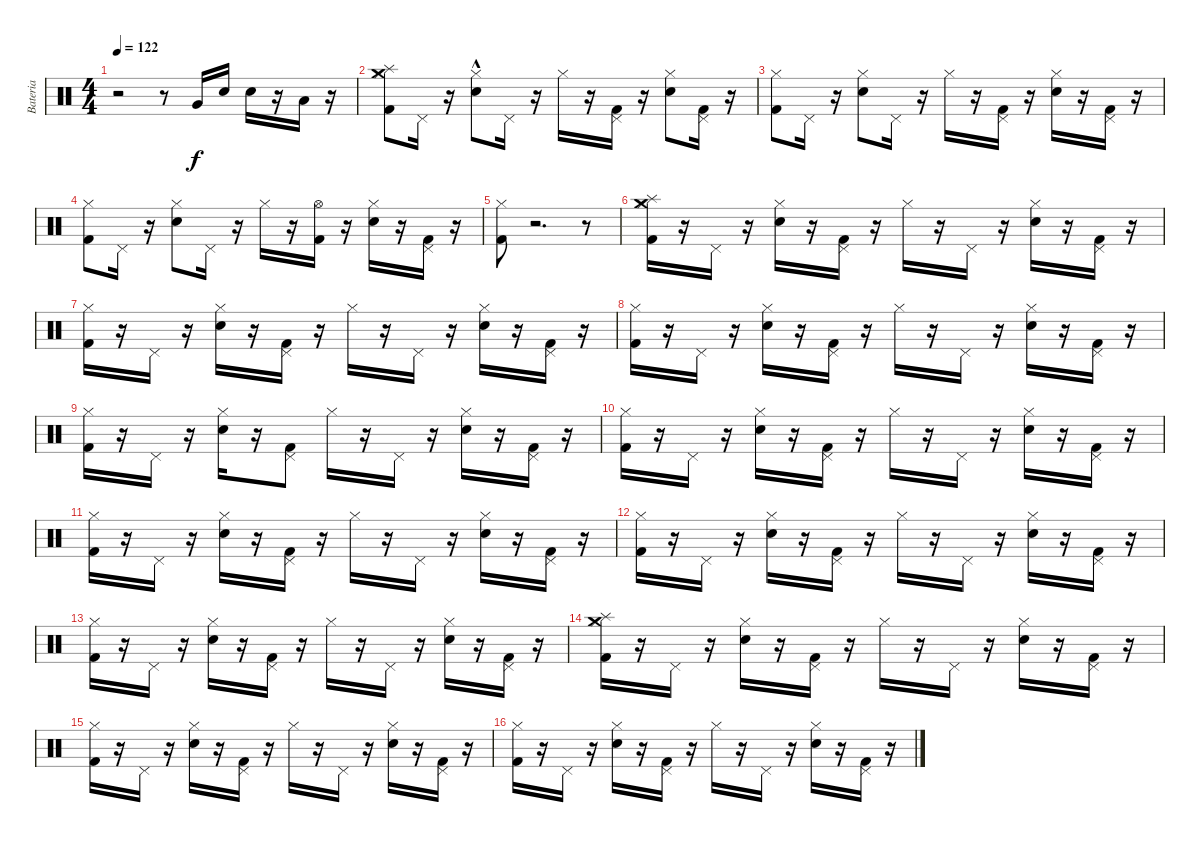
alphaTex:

\track ("Bateria" "Bateria") {instrument percussion}
\staff {score}
\articulation defaults
\ts (4 4)
\tempo 122
\clef neutral
\ks c
r.2{dy f} r.8 "Very Low Tom (hit)".16 "Snare (hit) 2".16 "Snare (hit) 2".16 r.16 "Low Floor Tom (hit)".16 r.16 |
("Kick (hit) 2" "Splash (hit)" "Crash medium (hit)" "Hi-Hat (closed)").8 "Pedal Hi-Hat (hit)".16 r.16 ("Snare (hit) 2"{hac} "Hi-Hat (closed)").8 "Pedal Hi-Hat (hit)".16 r.16 "Hi-Hat (closed)".16 r.16 ("Pedal Hi-Hat (hit)" "Kick (hit) 2").16 r.16 ("Hi-Hat (closed)" "Snare (hit) 2").8 ("Kick (hit) 2" "Pedal Hi-Hat (hit)").16 r.16 |
("Kick (hit) 2" "Hi-Hat (closed)").8 "Pedal Hi-Hat (hit)".16 r.16 ("Snare (hit) 2" "Hi-Hat (closed)").8 "Pedal Hi-Hat (hit)".16 r.16 "Hi-Hat (closed)".16 r.16 ("Kick (hit) 2" "Pedal Hi-Hat (hit)").16 r.16 ("Hi-Hat (closed)" "Snare (hit) 2").16 r.16 ("Pedal Hi-Hat (hit)" "Kick (hit) 2").16 r.16 |
("Hi-Hat (closed)" "Kick (hit) 2").8 "Pedal Hi-Hat (hit)".16 r.16 ("Snare (hit) 2" "Hi-Hat (closed)").8 "Pedal Hi-Hat (hit)".16 r.16 "Hi-Hat (closed)".16 r.16 ("Kick (hit) 2" "Hi-Hat (open)").16 r.16 ("Snare (hit) 2" "Hi-Hat (closed)").16 r.16 ("Kick (hit) 2" "Pedal Hi-Hat (hit)").16 r.16 |
("Hi-Hat (closed)" "Kick (hit) 2").8 r.2{d} r.8 |
("Kick (hit) 2" "Splash (hit)" "Crash medium (hit)" "Hi-Hat (closed)").16 r.16 "Pedal Hi-Hat (hit)".16 r.16 ("Hi-Hat (closed)" "Snare (hit) 2").16 r.16 ("Pedal Hi-Hat (hit)" "Kick (hit) 2").16 r.16 "Hi-Hat (closed)".16 r.16 "Pedal Hi-Hat (hit)".16 r.16 ("Snare (hit) 2" "Hi-Hat (closed)").16 r.16 ("Kick (hit) 2" "Pedal Hi-Hat (hit)").16 r.16 |
("Kick (hit) 2" "Hi-Hat (closed)").16 r.16 "Pedal Hi-Hat (hit)".16 r.16 ("Snare (hit) 2" "Hi-Hat (closed)").16 r.16 ("Kick (hit) 2" "Pedal Hi-Hat (hit)").16 r.16 "Hi-Hat (closed)".16 r.16 "Pedal Hi-Hat (hit)".16 r.16 ("Hi-Hat (closed)" "Snare (hit) 2").16 r.16 ("Kick (hit) 2" "Pedal Hi-Hat (hit)").16 r.16 |
("Kick (hit) 2" "Hi-Hat (closed)").16 r.16 "Pedal Hi-Hat (hit)".16 r.16 ("Snare (hit) 2" "Hi-Hat (closed)").16 r.16 ("Kick (hit) 2" "Pedal Hi-Hat (hit)").16 r.16 "Hi-Hat (closed)".16 r.16 "Pedal Hi-Hat (hit)".16 r.16 ("Hi-Hat (closed)" "Snare (hit) 2").16 r.16 ("Pedal Hi-Hat (hit)" "Kick (hit) 2").16 r.16 |
("Hi-Hat (closed)" "Kick (hit) 2").16 r.16 "Pedal Hi-Hat (hit)".16 r.16 ("Snare (hit) 2" "Hi-Hat (closed)").16 r.16 ("Kick (hit) 2" "Pedal Hi-Hat (hit)").8 "Hi-Hat (closed)".16 r.16 "Pedal Hi-Hat (hit)".16 r.16 ("Snare (hit) 2" "Hi-Hat (closed)").16 r.16 ("Kick (hit) 2" "Pedal Hi-Hat (hit)").16 r.16 |
("Hi-Hat (closed)" "Kick (hit) 2").16 r.16 "Pedal Hi-Hat (hit)".16 r.16 ("Hi-Hat (closed)" "Snare (hit) 2").16 r.16 ("Kick (hit) 2" "Pedal Hi-Hat (hit)").16 r.16 "Hi-Hat (closed)".16 r.16 "Pedal Hi-Hat (hit)".16 r.16 ("Snare (hit) 2" "Hi-Hat (closed)").16 r.16 ("Kick (hit) 2" "Pedal Hi-Hat (hit)").16 r.16 |
("Kick (hit) 2" "Hi-Hat (closed)").16 r.16 "Pedal Hi-Hat (hit)".16 r.16 ("Hi-Hat (closed)" "Snare (hit) 2").16 r.16 ("Pedal Hi-Hat (hit)" "Kick (hit) 2").16 r.16 "Hi-Hat (closed)".16 r.16 "Pedal Hi-Hat (hit)".16 r.16 ("Snare (hit) 2" "Hi-Hat (closed)").16 r.16 ("Kick (hit) 2" "Pedal Hi-Hat (hit)").16 r.16 |
("Kick (hit) 2" "Hi-Hat (closed)").16 r.16 "Pedal Hi-Hat (hit)".16 r.16 ("Snare (hit) 2" "Hi-Hat (closed)").16 r.16 ("Kick (hit) 2" "Pedal Hi-Hat (hit)").16 r.16 "Hi-Hat (closed)".16 r.16 "Pedal Hi-Hat (hit)".16 r.16 ("Hi-Hat (closed)" "Snare (hit) 2").16 r.16 ("Kick (hit) 2" "Pedal Hi-Hat (hit)").16 r.16 |
("Kick (hit) 2" "Hi-Hat (closed)").16 r.16 "Pedal Hi-Hat (hit)".16 r.16 ("Snare (hit) 2" "Hi-Hat (closed)").16 r.16 ("Kick (hit) 2" "Pedal Hi-Hat (hit)").16 r.16 "Hi-Hat (closed)".16 r.16 "Pedal Hi-Hat (hit)".16 r.16 ("Hi-Hat (closed)" "Snare (hit) 2").16 r.16 ("Pedal Hi-Hat (hit)" "Kick (hit) 2").16 r.16 |
("Hi-Hat (closed)" "Crash medium (hit)" "Splash (hit)" "Kick (hit) 2").16 r.16 "Pedal Hi-Hat (hit)".16 r.16 ("Snare (hit) 2" "Hi-Hat (closed)").16 r.16 ("Kick (hit) 2" "Pedal Hi-Hat (hit)").16 r.16 "Hi-Hat (closed)".16 r.16 "Pedal Hi-Hat (hit)".16 r.16 ("Snare (hit) 2" "Hi-Hat (closed)").16 r.16 ("Kick (hit) 2" "Pedal Hi-Hat (hit)").16 r.16 |
("Hi-Hat (closed)" "Kick (hit) 2").16 r.16 "Pedal Hi-Hat (hit)".16 r.16 ("Hi-Hat (closed)" "Snare (hit) 2").16 r.16 ("Kick (hit) 2" "Pedal Hi-Hat (hit)").16 r.16 "Hi-Hat (closed)".16 r.16 "Pedal Hi-Hat (hit)".16 r.16 ("Snare (hit) 2" "Hi-Hat (closed)").16 r.16 ("Kick (hit) 2" "Pedal Hi-Hat (hit)").16 r.16 |
("Kick (hit) 2" "Hi-Hat (closed)").16 r.16 "Pedal Hi-Hat (hit)".16 r.16 ("Hi-Hat (closed)" "Snare (hit) 2").16 r.16 ("Pedal Hi-Hat (hit)" "Kick (hit) 2").16 r.16 "Hi-Hat (closed)".16 r.16 "Pedal Hi-Hat (hit)".16 r.16 ("Snare (hit) 2" "Hi-Hat (closed)").16 r.16 ("Kick (hit) 2" "Pedal Hi-Hat (hit)").16 r.16
